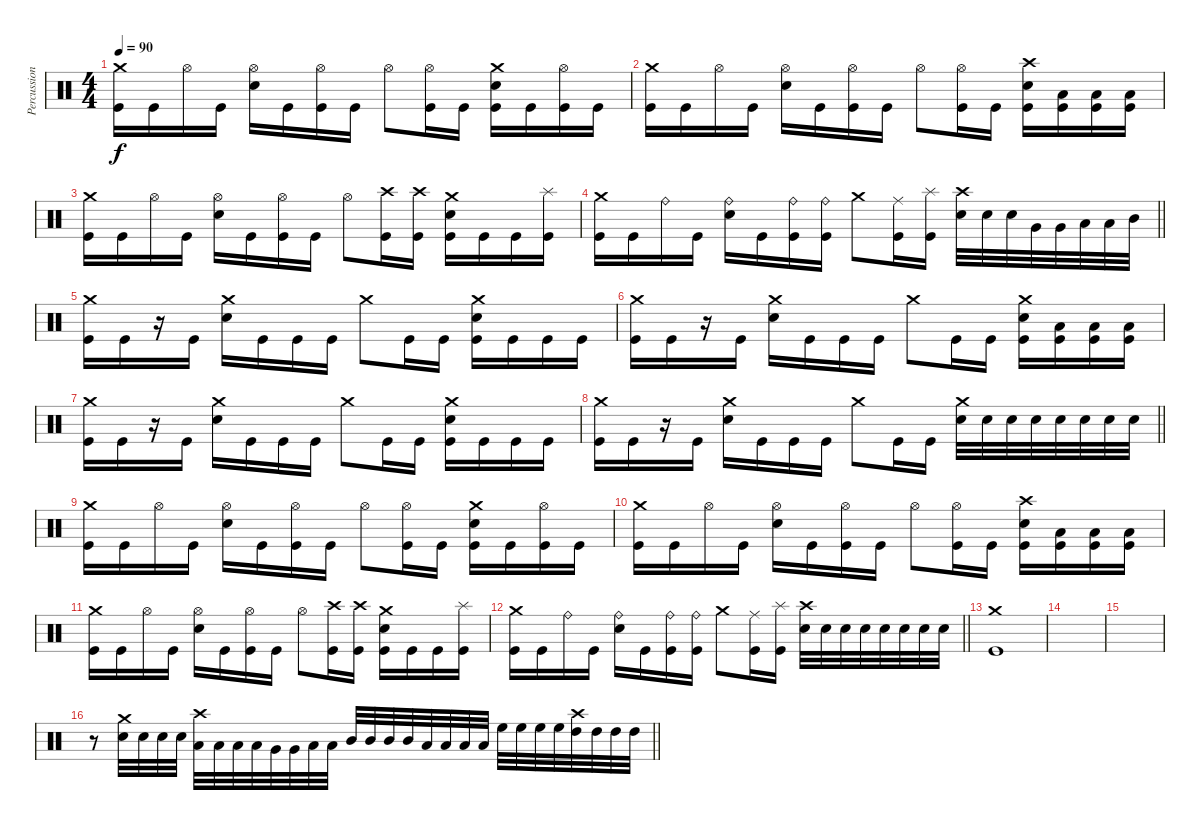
\track ("Percussion" "Percussion") {instrument percussion}
\staff {score}
\articulation defaults
\ts (4 4)
\tempo 90
\clef neutral
\ks c
("Crash medium (hit)" "Kick (hit)").16{dy f} "Kick (hit)".16 "Hi-Hat (open)".16 "Kick (hit)".16 ("Hi-Hat (open)" "Electric Snare (hit)").16 "Kick (hit)".16 ("Hi-Hat (open)" "Kick (hit)").16 "Kick (hit)".16 "Hi-Hat (open)".8 ("Hi-Hat (open)" "Kick (hit)").16 "Kick (hit)".16 ("Crash medium (hit)" "Electric Snare (hit)" "Kick (hit)").16 "Kick (hit)".16 ("Hi-Hat (open)" "Kick (hit)").16 "Kick (hit)".16 |
("Crash medium (hit)" "Kick (hit)").16 "Kick (hit)".16 "Hi-Hat (open)".16 "Kick (hit)".16 ("Hi-Hat (open)" "Electric Snare (hit)").16 "Kick (hit)".16 ("Hi-Hat (open)" "Kick (hit)").16 "Kick (hit)".16 "Hi-Hat (open)".8 ("Hi-Hat (open)" "Kick (hit)").16 "Kick (hit)".16 ("Crash high (hit)" "Electric Snare (hit)" "Kick (hit)").16 ("Low Tom (hit)" "Kick (hit)").16 ("Low Tom (hit)" "Kick (hit)").16 ("Low Tom (hit)" "Kick (hit)").16 |
("Crash medium (hit)" "Kick (hit)").16 "Kick (hit)".16 "Hi-Hat (open)".16 "Kick (hit)".16 ("Hi-Hat (open)" "Electric Snare (hit)").16 "Kick (hit)".16 ("Hi-Hat (open)" "Kick (hit)").16 "Kick (hit)".16 "Hi-Hat (open)".8 ("Crash high (hit)" "Kick (hit)").16 ("Crash high (hit)" "Kick (hit)").16 ("Crash medium (hit)" "Electric Snare (hit)" "Kick (hit)").16 "Kick (hit)".16 "Kick (hit)".16 ("Splash (hit)" "Kick (hit)").16 |
\barLineRight lightlight
("Crash medium (hit)" "Kick (hit)").16 "Kick (hit)".16 "Ride (bell)".16 "Kick (hit)".16 ("Ride (bell)" "Electric Snare (hit)").16 "Kick (hit)".16 ("Ride (bell)" "Kick (hit)").16 ("Ride (bell)" "Kick (hit)").16 "Crash medium (hit)".8 ("Ride (middle)" "Kick (hit)").16 ("Splash (hit)" "Kick (hit)").16 ("Crash high (hit)" "Electric Snare (hit)").32 "Electric Snare (hit)".32 "Electric Snare (hit)".32 "Very Low Tom (hit)".32 "Very Low Tom (hit)".32 "Low Floor Tom (hit)".32 "Low Floor Tom (hit)".32 "Mid Tom (hit)".32 |
("Crash medium (hit)" "Kick (hit)").16 "Kick (hit)".16 r.16 "Kick (hit)".16 ("Crash medium (hit)" "Electric Snare (hit)").16 "Kick (hit)".16 "Kick (hit)".16 "Kick (hit)".16 "Crash medium (hit)".8 "Kick (hit)".16 "Kick (hit)".16 ("Crash medium (hit)" "Electric Snare (hit)" "Kick (hit)").16 "Kick (hit)".16 "Kick (hit)".16 "Kick (hit)".16 |
("Crash medium (hit)" "Kick (hit)").16 "Kick (hit)".16 r.16 "Kick (hit)".16 ("Crash medium (hit)" "Electric Snare (hit)").16 "Kick (hit)".16 "Kick (hit)".16 "Kick (hit)".16 "Crash medium (hit)".8 "Kick (hit)".16 "Kick (hit)".16 ("Crash medium (hit)" "Electric Snare (hit)" "Kick (hit)").16 ("Low Tom (hit)" "Kick (hit)").16 ("Low Tom (hit)" "Kick (hit)").16 ("Low Tom (hit)" "Kick (hit)").16 |
("Crash medium (hit)" "Kick (hit)").16 "Kick (hit)".16 r.16 "Kick (hit)".16 ("Crash medium (hit)" "Electric Snare (hit)").16 "Kick (hit)".16 "Kick (hit)".16 "Kick (hit)".16 "Crash medium (hit)".8 "Kick (hit)".16 "Kick (hit)".16 ("Crash medium (hit)" "Electric Snare (hit)" "Kick (hit)").16 "Kick (hit)".16 "Kick (hit)".16 "Kick (hit)".16 |
\barLineRight lightlight
("Crash medium (hit)" "Kick (hit)").16 "Kick (hit)".16 r.16 "Kick (hit)".16 ("Crash medium (hit)" "Electric Snare (hit)").16 "Kick (hit)".16 "Kick (hit)".16 "Kick (hit)".16 "Crash medium (hit)".8 "Kick (hit)".16 "Kick (hit)".16 ("Crash medium (hit)" "Electric Snare (hit)").32 "Electric Snare (hit)".32 "Electric Snare (hit)".32 "Electric Snare (hit)".32 "Electric Snare (hit)".32 "Electric Snare (hit)".32 "Electric Snare (hit)".32 "Electric Snare (hit)".32 |
("Crash medium (hit)" "Kick (hit)").16 "Kick (hit)".16 "Hi-Hat (open)".16 "Kick (hit)".16 ("Hi-Hat (open)" "Electric Snare (hit)").16 "Kick (hit)".16 ("Hi-Hat (open)" "Kick (hit)").16 "Kick (hit)".16 "Hi-Hat (open)".8 ("Hi-Hat (open)" "Kick (hit)").16 "Kick (hit)".16 ("Crash medium (hit)" "Electric Snare (hit)" "Kick (hit)").16 "Kick (hit)".16 ("Hi-Hat (open)" "Kick (hit)").16 "Kick (hit)".16 |
("Crash medium (hit)" "Kick (hit)").16 "Kick (hit)".16 "Hi-Hat (open)".16 "Kick (hit)".16 ("Hi-Hat (open)" "Electric Snare (hit)").16 "Kick (hit)".16 ("Hi-Hat (open)" "Kick (hit)").16 "Kick (hit)".16 "Hi-Hat (open)".8 ("Hi-Hat (open)" "Kick (hit)").16 "Kick (hit)".16 ("Crash high (hit)" "Electric Snare (hit)" "Kick (hit)").16 ("Low Tom (hit)" "Kick (hit)").16 ("Low Tom (hit)" "Kick (hit)").16 ("Low Tom (hit)" "Kick (hit)").16 |
("Crash medium (hit)" "Kick (hit)").16 "Kick (hit)".16 "Hi-Hat (open)".16 "Kick (hit)".16 ("Hi-Hat (open)" "Electric Snare (hit)").16 "Kick (hit)".16 ("Hi-Hat (open)" "Kick (hit)").16 "Kick (hit)".16 "Hi-Hat (open)".8 ("Crash high (hit)" "Kick (hit)").16 ("Crash high (hit)" "Kick (hit)").16 ("Crash medium (hit)" "Electric Snare (hit)" "Kick (hit)").16 "Kick (hit)".16 "Kick (hit)".16 ("Splash (hit)" "Kick (hit)").16 |
\barLineRight lightlight
("Crash medium (hit)" "Kick (hit)").16 "Kick (hit)".16 "Ride (bell)".16 "Kick (hit)".16 ("Ride (bell)" "Electric Snare (hit)").16 "Kick (hit)".16 ("Ride (bell)" "Kick (hit)").16 ("Ride (bell)" "Kick (hit)").16 "Crash medium (hit)".8 ("Ride (middle)" "Kick (hit)").16 ("Splash (hit)" "Kick (hit)").16 ("Crash high (hit)" "Electric Snare (hit)").32 "Electric Snare (hit)".32 "Electric Snare (hit)".32 "Electric Snare (hit)".32 "Electric Snare (hit)".32 "Electric Snare (hit)".32 "Electric Snare (hit)".32 "Electric Snare (hit)".32 |
("Crash medium (hit)" "Kick (hit)").1 |
|
|
\barLineRight lightlight
r.8 ("Crash medium (hit)" "Electric Snare (hit)").32 "Electric Snare (hit)".32 "Electric Snare (hit)".32 "Electric Snare (hit)".32 ("Crash high (hit)" "Low Tom (hit)").32 "Low Tom (hit)".32 "Low Tom (hit)".32 "Low Tom (hit)".32 "Very Low Tom (hit)".32 "Very Low Tom (hit)".32 "Low Floor Tom (hit)".32 "Low Floor Tom (hit)".32 "Mid Tom (hit)".32 "Mid Tom (hit)".32 "Mid Tom (hit)".32 "Mid Tom (hit)".32 "Low Tom (hit)".32 "Low Tom (hit)".32 "Low Tom (hit)".32 "Low Tom (hit)".32 "High Floor Tom (hit)".32 "High Floor Tom (hit)".32 "High Floor Tom (hit)".32 "High Floor Tom (hit)".32 ("Crash high (hit)" "High Tom (hit)").32 "High Tom (hit)".32 "High Tom (hit)".32 "High Tom (hit)".32
